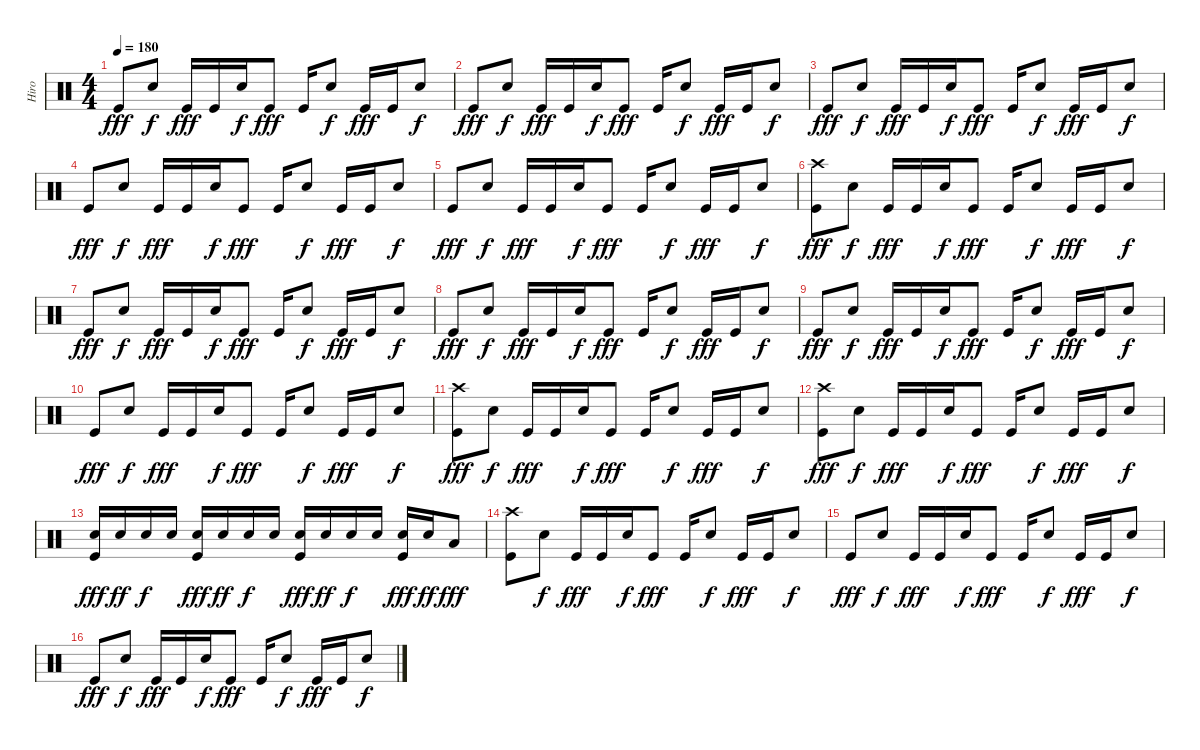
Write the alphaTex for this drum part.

\track ("Hiro" "Hiro") {instrument percussion}
\staff {score}
\articulation defaults
\ts (4 4)
\tempo 180
\clef neutral
\ks c "Kick (hit)".8{dy fff} "Electric Snare (hit)".8{dy f} "Kick (hit)".16{dy fff} "Kick (hit)".16 "Electric Snare (hit)".16{dy f} "Kick (hit)".8{dy fff} "Kick (hit)".16 "Electric Snare (hit)".8{dy f} "Kick (hit)".16{dy fff} "Kick (hit)".16 "Electric Snare (hit)".8{dy f}
|
"Kick (hit)".8{dy fff} "Electric Snare (hit)".8{dy f} "Kick (hit)".16{dy fff} "Kick (hit)".16 "Electric Snare (hit)".16{dy f} "Kick (hit)".8{dy fff} "Kick (hit)".16 "Electric Snare (hit)".8{dy f} "Kick (hit)".16{dy fff} "Kick (hit)".16 "Electric Snare (hit)".8{dy f} |
"Kick (hit)".8{dy fff} "Electric Snare (hit)".8{dy f} "Kick (hit)".16{dy fff} "Kick (hit)".16 "Electric Snare (hit)".16{dy f} "Kick (hit)".8{dy fff} "Kick (hit)".16 "Electric Snare (hit)".8{dy f} "Kick (hit)".16{dy fff} "Kick (hit)".16 "Electric Snare (hit)".8{dy f} |
"Kick (hit)".8{dy fff} "Electric Snare (hit)".8{dy f} "Kick (hit)".16{dy fff} "Kick (hit)".16 "Electric Snare (hit)".16{dy f} "Kick (hit)".8{dy fff} "Kick (hit)".16 "Electric Snare (hit)".8{dy f} "Kick (hit)".16{dy fff} "Kick (hit)".16 "Electric Snare (hit)".8{dy f} |
"Kick (hit)".8{dy fff} "Electric Snare (hit)".8{dy f} "Kick (hit)".16{dy fff} "Kick (hit)".16 "Electric Snare (hit)".16{dy f} "Kick (hit)".8{dy fff} "Kick (hit)".16 "Electric Snare (hit)".8{dy f} "Kick (hit)".16{dy fff} "Kick (hit)".16 "Electric Snare (hit)".8{dy f} |
("Crash high (hit)" "Kick (hit)").8{dy fff} "Electric Snare (hit)".8{dy f} "Kick (hit)".16{dy fff} "Kick (hit)".16 "Electric Snare (hit)".16{dy f} "Kick (hit)".8{dy fff} "Kick (hit)".16 "Electric Snare (hit)".8{dy f} "Kick (hit)".16{dy fff} "Kick (hit)".16 "Electric Snare (hit)".8{dy f} |
"Kick (hit)".8{dy fff} "Electric Snare (hit)".8{dy f} "Kick (hit)".16{dy fff} "Kick (hit)".16 "Electric Snare (hit)".16{dy f} "Kick (hit)".8{dy fff} "Kick (hit)".16 "Electric Snare (hit)".8{dy f} "Kick (hit)".16{dy fff} "Kick (hit)".16 "Electric Snare (hit)".8{dy f} |
"Kick (hit)".8{dy fff} "Electric Snare (hit)".8{dy f} "Kick (hit)".16{dy fff} "Kick (hit)".16 "Electric Snare (hit)".16{dy f} "Kick (hit)".8{dy fff} "Kick (hit)".16 "Electric Snare (hit)".8{dy f} "Kick (hit)".16{dy fff} "Kick (hit)".16 "Electric Snare (hit)".8{dy f} |
"Kick (hit)".8{dy fff} "Electric Snare (hit)".8{dy f} "Kick (hit)".16{dy fff} "Kick (hit)".16 "Electric Snare (hit)".16{dy f} "Kick (hit)".8{dy fff} "Kick (hit)".16 "Electric Snare (hit)".8{dy f} "Kick (hit)".16{dy fff} "Kick (hit)".16 "Electric Snare (hit)".8{dy f} |
"Kick (hit)".8{dy fff} "Electric Snare (hit)".8{dy f} "Kick (hit)".16{dy fff} "Kick (hit)".16 "Electric Snare (hit)".16{dy f} "Kick (hit)".8{dy fff} "Kick (hit)".16 "Electric Snare (hit)".8{dy f} "Kick (hit)".16{dy fff} "Kick (hit)".16 "Electric Snare (hit)".8{dy f} |
("Crash high (hit)" "Kick (hit)").8{dy fff} "Electric Snare (hit)".8{dy f} "Kick (hit)".16{dy fff} "Kick (hit)".16 "Electric Snare (hit)".16{dy f} "Kick (hit)".8{dy fff} "Kick (hit)".16 "Electric Snare (hit)".8{dy f} "Kick (hit)".16{dy fff} "Kick (hit)".16 "Electric Snare (hit)".8{dy f} |
("Crash high (hit)" "Kick (hit)").8{dy fff} "Electric Snare (hit)".8{dy f} "Kick (hit)".16{dy fff} "Kick (hit)".16 "Electric Snare (hit)".16{dy f} "Kick (hit)".8{dy fff} "Kick (hit)".16 "Electric Snare (hit)".8{dy f} "Kick (hit)".16{dy fff} "Kick (hit)".16 "Electric Snare (hit)".8{dy f} |
("Electric Snare (hit)" "Kick (hit)").16{dy fff} "Electric Snare (hit)".16{dy ff} "Electric Snare (hit)".16{dy f} "Electric Snare (hit)".16 ("Electric Snare (hit)" "Kick (hit)").16{dy fff} "Electric Snare (hit)".16{dy ff} "Electric Snare (hit)".16{dy f} "Electric Snare (hit)".16 ("Electric Snare (hit)" "Kick (hit)").16{dy fff} "Electric Snare (hit)".16{dy ff} "Electric Snare (hit)".16{dy f} "Electric Snare (hit)".16 ("Electric Snare (hit)" "Kick (hit)").16{dy fff} "Electric Snare (hit)".16{dy ff} "Low Tom (hit)".8{dy fff} |
("Crash high (hit)" "Kick (hit)").8 "Electric Snare (hit)".8{dy f} "Kick (hit)".16{dy fff} "Kick (hit)".16 "Electric Snare (hit)".16{dy f} "Kick (hit)".8{dy fff} "Kick (hit)".16 "Electric Snare (hit)".8{dy f} "Kick (hit)".16{dy fff} "Kick (hit)".16 "Electric Snare (hit)".8{dy f} |
"Kick (hit)".8{dy fff} "Electric Snare (hit)".8{dy f} "Kick (hit)".16{dy fff} "Kick (hit)".16 "Electric Snare (hit)".16{dy f} "Kick (hit)".8{dy fff} "Kick (hit)".16 "Electric Snare (hit)".8{dy f} "Kick (hit)".16{dy fff} "Kick (hit)".16 "Electric Snare (hit)".8{dy f} |
"Kick (hit)".8{dy fff} "Electric Snare (hit)".8{dy f} "Kick (hit)".16{dy fff} "Kick (hit)".16 "Electric Snare (hit)".16{dy f} "Kick (hit)".8{dy fff} "Kick (hit)".16 "Electric Snare (hit)".8{dy f} "Kick (hit)".16{dy fff} "Kick (hit)".16 "Electric Snare (hit)".8{dy f}
